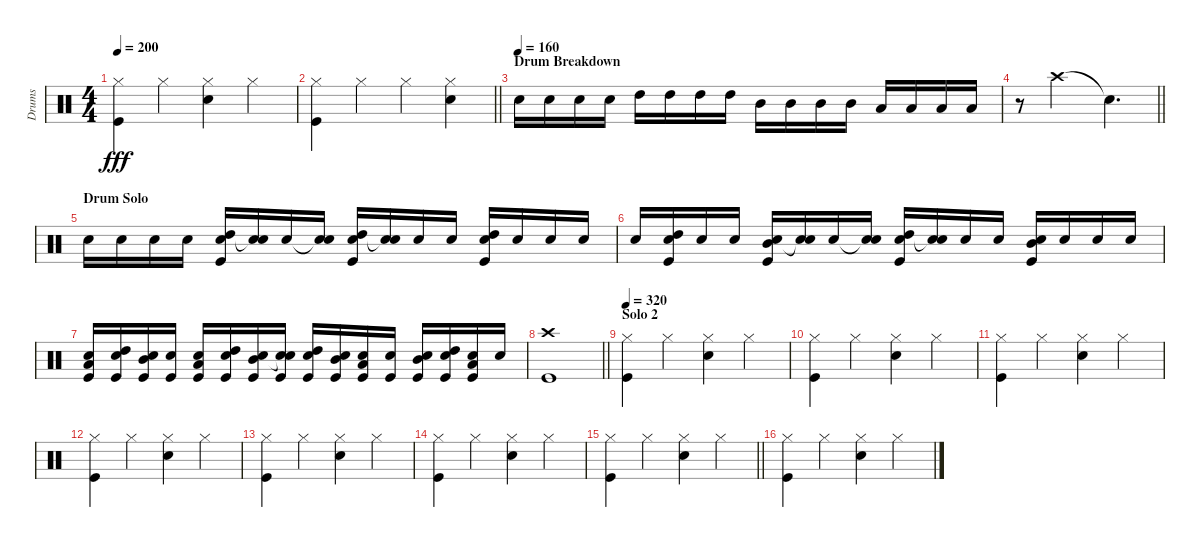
\track ("Drums" "Drums") {instrument percussion}
\staff {score}
\articulation defaults
\ts (4 4)
\tempo 200
\clef neutral
\ks c
("Hi-Hat (closed)" "Kick (hit)").4{dy fff} "Hi-Hat (closed)".4 ("Hi-Hat (closed)" "Snare (hit) 2").4 "Hi-Hat (closed)".4 |
\barLineRight lightlight
("Hi-Hat (closed)" "Kick (hit)").4 "Hi-Hat (closed)".4 "Hi-Hat (closed)".4 ("Hi-Hat (closed)" "Snare (hit) 2").4 |
\section ("" "Drum Breakdown")
\tempo (160)
"Snare (hit) 2".16 "Snare (hit) 2".16 "Snare (hit) 2".16 "Snare (hit) 2".16 "High Tom (hit)".16 "High Tom (hit)".16 "High Tom (hit)".16 "High Tom (hit)".16 "Mid Tom (hit)".16 "Mid Tom (hit)".16 "Mid Tom (hit)".16 "Mid Tom (hit)".16 "Low Floor Tom (hit)".16 "Low Floor Tom (hit)".16 "Low Floor Tom (hit)".16 "Low Floor Tom (hit)".16 |
\barLineRight lightlight
r.8 "Crash high (hit)".2 "Snare (hit)"{t}.4{d} |
\section ("" "Drum Solo")
"Snare (hit) 2".16 "Snare (hit) 2".16 "Snare (hit) 2".16 "Snare (hit) 2".16 ("High Tom (hit)" "Snare (hit) 2" "Kick (hit)").16 ("Snare (hit)"{t} "Snare (hit) 2").16 "Snare (hit) 2".16 ("Snare (hit)"{t} "Snare (hit) 2").16 ("High Tom (hit)" "Snare (hit) 2" "Kick (hit)").16 ("Snare (hit)"{t} "Snare (hit) 2").16 "Snare (hit) 2".16 "Snare (hit) 2".16 ("High Tom (hit)" "Snare (hit) 2" "Kick (hit)").16 "Snare (hit) 2".16 "Snare (hit) 2".16 "Snare (hit) 2".16 |
"Snare (hit) 2".16 ("High Tom (hit)" "Snare (hit) 2" "Kick (hit)").16 "Snare (hit) 2".16 "Snare (hit) 2".16 ("Mid Tom (hit)" "Snare (hit) 2" "Kick (hit)").16 ("Snare (hit)"{t} "Snare (hit) 2").16 "Snare (hit) 2".16 ("Snare (hit)"{t} "Snare (hit) 2").16 ("High Tom (hit)" "Snare (hit) 2" "Kick (hit)").16 ("Snare (hit)"{t} "Snare (hit) 2").16 "Snare (hit) 2".16 "Snare (hit) 2".16 ("Mid Tom (hit)" "Snare (hit) 2" "Kick (hit)").16 "Snare (hit) 2".16 "Snare (hit) 2".16 "Snare (hit) 2".16 |
("Low Floor Tom (hit)" "Snare (hit) 2" "Kick (hit)").16 ("High Tom (hit)" "Snare (hit) 2" "Kick (hit)").16 ("Mid Tom (hit)" "Snare (hit) 2" "Kick (hit)").16 ("Snare (hit) 2" "Kick (hit)").16 ("Low Floor Tom (hit)" "Snare (hit) 2" "Kick (hit)").16 ("High Tom (hit)" "Snare (hit) 2" "Kick (hit)").16 ("Mid Tom (hit)" "Snare (hit) 2" "Kick (hit)").16 ("Snare (hit)"{t} "Snare (hit) 2" "Kick (hit)").16 ("High Tom (hit)" "Snare (hit) 2" "Kick (hit)").16 ("Mid Tom (hit)" "Snare (hit) 2" "Kick (hit)").16 ("Low Floor Tom (hit)" "Snare (hit) 2" "Kick (hit)").16 ("Snare (hit) 2" "Kick (hit)").16 ("Mid Tom (hit)" "Snare (hit) 2" "Kick (hit)").16 ("High Tom (hit)" "Snare (hit) 2" "Kick (hit)").16 ("Low Floor Tom (hit)" "Snare (hit) 2" "Kick (hit)").16 "Snare (hit) 2".16 |
\barLineRight lightlight
("Crash high (hit)" "Kick (hit)").1 |
\section ("" "Solo 2")
\tempo 320
("Hi-Hat (closed)" "Kick (hit)").4 "Hi-Hat (closed)".4 ("Hi-Hat (closed)" "Snare (hit) 2").4 "Hi-Hat (closed)".4 |
("Hi-Hat (closed)" "Kick (hit)").4 "Hi-Hat (closed)".4 ("Hi-Hat (closed)" "Snare (hit) 2").4 "Hi-Hat (closed)".4 |
("Hi-Hat (closed)" "Kick (hit)").4 "Hi-Hat (closed)".4 ("Hi-Hat (closed)" "Snare (hit) 2").4 "Hi-Hat (closed)".4 |
("Hi-Hat (closed)" "Kick (hit)").4 "Hi-Hat (closed)".4 ("Hi-Hat (closed)" "Snare (hit) 2").4 "Hi-Hat (closed)".4 |
("Hi-Hat (closed)" "Kick (hit)").4 "Hi-Hat (closed)".4 ("Hi-Hat (closed)" "Snare (hit) 2").4 "Hi-Hat (closed)".4 |
("Hi-Hat (closed)" "Kick (hit)").4 "Hi-Hat (closed)".4 ("Hi-Hat (closed)" "Snare (hit) 2").4 "Hi-Hat (closed)".4 |
\barLineRight lightlight
("Hi-Hat (closed)" "Kick (hit)").4 "Hi-Hat (closed)".4 ("Hi-Hat (closed)" "Snare (hit) 2").4 "Hi-Hat (closed)".4 |
("Hi-Hat (closed)" "Kick (hit)").4 "Hi-Hat (closed)".4 ("Hi-Hat (closed)" "Snare (hit) 2").4 "Hi-Hat (closed)".4
